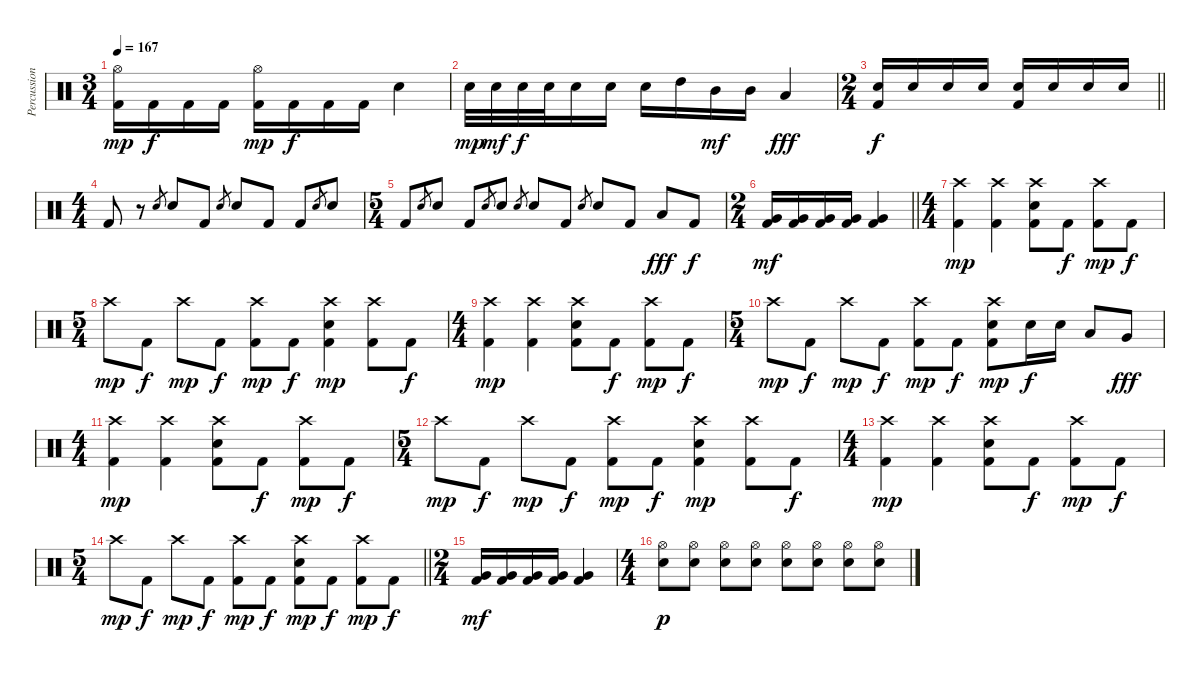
\track ("Percussion" "Percussion") {instrument percussion}
\staff {score}
\articulation defaults
\ts (3 4)
\tempo 167
\clef neutral
\ks c
("Hi-Hat (open)" "Kick (hit) 2").16{dy mp} "Kick (hit) 2".16{dy f} "Kick (hit) 2".16 "Kick (hit) 2".16 ("Hi-Hat (open)" "Kick (hit) 2").16{dy mp} "Kick (hit) 2".16{dy f} "Kick (hit) 2".16 "Kick (hit) 2".16 "Snare (hit) 2".4 |
"Snare (hit) 2".32{dy mp} "Snare (hit) 2".32{dy mf} "Snare (hit) 2".32{dy f} "Snare (hit) 2".32 "Snare (hit) 2".16 "Snare (hit) 2".16 "Snare (hit) 2".16 "High Tom (hit)".16 "Mid Tom (hit)".16{dy mf} "Mid Tom (hit)".16 "Low Tom (hit)".4{dy fff} |
\ts (2 4)
\barLineRight lightlight
("Snare (hit) 2" "Kick (hit) 2").16{dy f} "Snare (hit) 2".16 "Snare (hit) 2".16 "Snare (hit) 2".16 ("Snare (hit) 2" "Kick (hit) 2").16 "Snare (hit) 2".16 "Snare (hit) 2".16 "Snare (hit) 2".16 |
\ts (4 4)
"Kick (hit) 2".8 r.8 "Snare (hit) 2".8{gr} "Snare (hit) 2".8 "Kick (hit) 2".8 "Snare (hit) 2".8{gr} "Snare (hit) 2".8 "Kick (hit) 2".8 "Kick (hit) 2".8 "Snare (hit) 2".8{gr} "Snare (hit) 2".8 |
\ts (5 4)
"Kick (hit) 2".8 "Snare (hit) 2".8{gr} "Snare (hit) 2".8 "Kick (hit) 2".8 "Snare (hit) 2".8{gr} "Snare (hit) 2".8 "Snare (hit) 2".8{gr} "Snare (hit) 2".8 "Kick (hit) 2".8 "Snare (hit) 2".8{gr} "Snare (hit) 2".8 "Kick (hit) 2".8 "Low Floor Tom (hit)".8{dy fff} "Kick (hit) 2".8{dy f} |
\ts (2 4)
\barLineRight lightlight
("Very Low Tom (hit)" "Kick (hit) 2").16{dy mf} ("Very Low Tom (hit)" "Kick (hit) 2").16 ("Very Low Tom (hit)" "Kick (hit) 2").16 ("Very Low Tom (hit)" "Kick (hit) 2").16 ("Very Low Tom (hit)" "Kick (hit) 2").4 |
\ts (4 4)
("Crash high (hit)" "Kick (hit) 2").4{dy mp} ("Crash high (hit)" "Kick (hit) 2").4 ("Crash high (hit)" "Snare (hit) 2" "Kick (hit) 2").8 "Kick (hit) 2".8{dy f} ("Crash high (hit)" "Kick (hit) 2").8{dy mp} "Kick (hit) 2".8{dy f} |
\ts (5 4)
"Crash high (hit)".8{dy mp} "Kick (hit) 2".8{dy f} "Crash high (hit)".8{dy mp} "Kick (hit) 2".8{dy f} ("Crash high (hit)" "Kick (hit) 2").8{dy mp} "Kick (hit) 2".8{dy f} ("Crash high (hit)" "Snare (hit) 2" "Kick (hit) 2").4{dy mp} ("Crash high (hit)" "Kick (hit) 2").8 "Kick (hit) 2".8{dy f} |
\ts (4 4)
("Crash high (hit)" "Kick (hit) 2").4{dy mp} ("Crash high (hit)" "Kick (hit) 2").4 ("Crash high (hit)" "Snare (hit) 2" "Kick (hit) 2").8 "Kick (hit) 2".8{dy f} ("Crash high (hit)" "Kick (hit) 2").8{dy mp} "Kick (hit) 2".8{dy f} |
\ts (5 4)
"Crash high (hit)".8{dy mp} "Kick (hit) 2".8{dy f} "Crash high (hit)".8{dy mp} "Kick (hit) 2".8{dy f} ("Crash high (hit)" "Kick (hit) 2").8{dy mp} "Kick (hit) 2".8{dy f} ("Crash high (hit)" "Snare (hit) 2" "Kick (hit) 2").8{dy mp} "Snare (hit) 2".16{dy f} "Snare (hit) 2".16 "Low Tom (hit)".8 "Very Low Tom (hit)".8{dy fff} |
\ts (4 4)
("Crash high (hit)" "Kick (hit) 2").4{dy mp} ("Crash high (hit)" "Kick (hit) 2").4 ("Crash high (hit)" "Snare (hit) 2" "Kick (hit) 2").8 "Kick (hit) 2".8{dy f} ("Crash high (hit)" "Kick (hit) 2").8{dy mp} "Kick (hit) 2".8{dy f} |
\ts (5 4)
"Crash high (hit)".8{dy mp} "Kick (hit) 2".8{dy f} "Crash high (hit)".8{dy mp} "Kick (hit) 2".8{dy f} ("Crash high (hit)" "Kick (hit) 2").8{dy mp} "Kick (hit) 2".8{dy f} ("Crash high (hit)" "Snare (hit) 2" "Kick (hit) 2").4{dy mp} ("Crash high (hit)" "Kick (hit) 2").8 "Kick (hit) 2".8{dy f} |
\ts (4 4)
("Crash high (hit)" "Kick (hit) 2").4{dy mp} ("Crash high (hit)" "Kick (hit) 2").4 ("Crash high (hit)" "Snare (hit) 2" "Kick (hit) 2").8 "Kick (hit) 2".8{dy f} ("Crash high (hit)" "Kick (hit) 2").8{dy mp} "Kick (hit) 2".8{dy f} |
\ts (5 4)
\barLineRight lightlight "Crash high (hit)".8{dy mp} "Kick (hit) 2".8{dy f} "Crash high (hit)".8{dy mp} "Kick (hit) 2".8{dy f}
("Crash high (hit)" "Kick (hit) 2").8{dy mp} "Kick (hit) 2".8{dy f} ("Crash high (hit)" "Snare (hit) 2" "Kick (hit) 2").8{dy mp} "Kick (hit) 2".8{dy f} ("Crash high (hit)" "Kick (hit) 2").8{dy mp} "Kick (hit) 2".8{dy f} |
\ts (2 4)
("Very Low Tom (hit)" "Kick (hit) 2").16{dy mf} ("Very Low Tom (hit)" "Kick (hit) 2").16 ("Very Low Tom (hit)" "Kick (hit) 2").16 ("Very Low Tom (hit)" "Kick (hit) 2").16 ("Very Low Tom (hit)" "Kick (hit) 2").4 |
\ts (4 4)
("Hi-Hat (open)" "Snare (hit) 2").8{dy p} ("Hi-Hat (open)" "Snare (hit) 2").8 ("Hi-Hat (open)" "Snare (hit) 2").8 ("Hi-Hat (open)" "Snare (hit) 2").8 ("Hi-Hat (open)" "Snare (hit) 2").8 ("Hi-Hat (open)" "Snare (hit) 2").8 ("Hi-Hat (open)" "Snare (hit) 2").8 ("Hi-Hat (open)" "Snare (hit) 2").8
